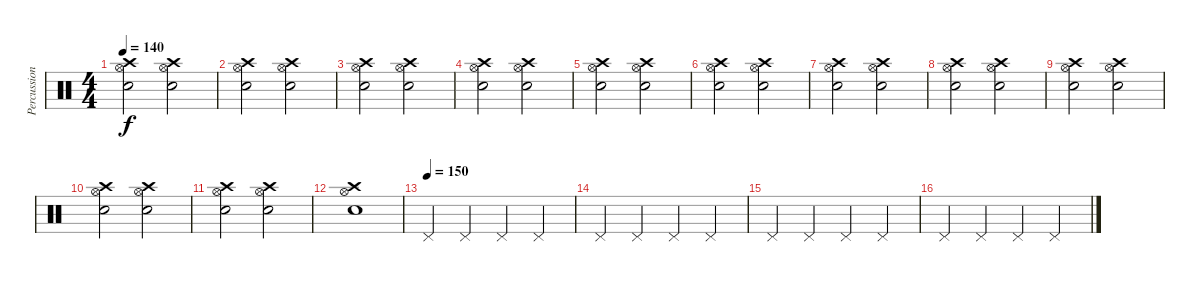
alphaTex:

\track ("Percussion" "Percussion") {instrument percussion}
\staff {score}
\articulation defaults
\ts (4 4)
\tempo 140
\clef neutral
\ks c
("Crash high (hit)" "Snare (hit) 2" "Hi-Hat (open)").2{dy f} ("Crash high (hit)" "Snare (hit) 2" "Hi-Hat (open)").2 |
("Crash high (hit)" "Snare (hit) 2" "Hi-Hat (open)").2{volume 16} ("Crash high (hit)" "Snare (hit) 2" "Hi-Hat (open)").2 |
("Crash high (hit)" "Snare (hit) 2" "Hi-Hat (open)").2 ("Crash high (hit)" "Snare (hit) 2" "Hi-Hat (open)").2 |
("Crash high (hit)" "Snare (hit) 2" "Hi-Hat (open)").2{volume 16} ("Crash high (hit)" "Snare (hit) 2" "Hi-Hat (open)").2 |
("Crash high (hit)" "Snare (hit) 2" "Hi-Hat (open)").2 ("Crash high (hit)" "Snare (hit) 2" "Hi-Hat (open)").2 |
("Crash high (hit)" "Snare (hit) 2" "Hi-Hat (open)").2{volume 16} ("Crash high (hit)" "Snare (hit) 2" "Hi-Hat (open)").2 |
("Crash high (hit)" "Snare (hit) 2" "Hi-Hat (open)").2 ("Crash high (hit)" "Snare (hit) 2" "Hi-Hat (open)").2 |
("Crash high (hit)" "Snare (hit) 2" "Hi-Hat (open)").2{volume 16} ("Crash high (hit)" "Snare (hit) 2" "Hi-Hat (open)").2 |
("Crash high (hit)" "Snare (hit) 2" "Hi-Hat (open)").2{volume 16} ("Crash high (hit)" "Snare (hit) 2" "Hi-Hat (open)").2 |
("Crash high (hit)" "Snare (hit) 2" "Hi-Hat (open)").2{volume 16} ("Crash high (hit)" "Snare (hit) 2" "Hi-Hat (open)").2 |
("Crash high (hit)" "Snare (hit) 2" "Hi-Hat (open)").2{volume 16} ("Crash high (hit)" "Snare (hit) 2" "Hi-Hat (open)").2 |
("Crash high (hit)" "Snare (hit) 2" "Hi-Hat (open)").1 |
\tempo (150)
"Pedal Hi-Hat (hit)".4 "Pedal Hi-Hat (hit)".4 "Pedal Hi-Hat (hit)".4 "Pedal Hi-Hat (hit)".4 |
"Pedal Hi-Hat (hit)".4 "Pedal Hi-Hat (hit)".4 "Pedal Hi-Hat (hit)".4 "Pedal Hi-Hat (hit)".4 |
"Pedal Hi-Hat (hit)".4 "Pedal Hi-Hat (hit)".4 "Pedal Hi-Hat (hit)".4 "Pedal Hi-Hat (hit)".4 |
"Pedal Hi-Hat (hit)".4 "Pedal Hi-Hat (hit)".4 "Pedal Hi-Hat (hit)".4 "Pedal Hi-Hat (hit)".4
